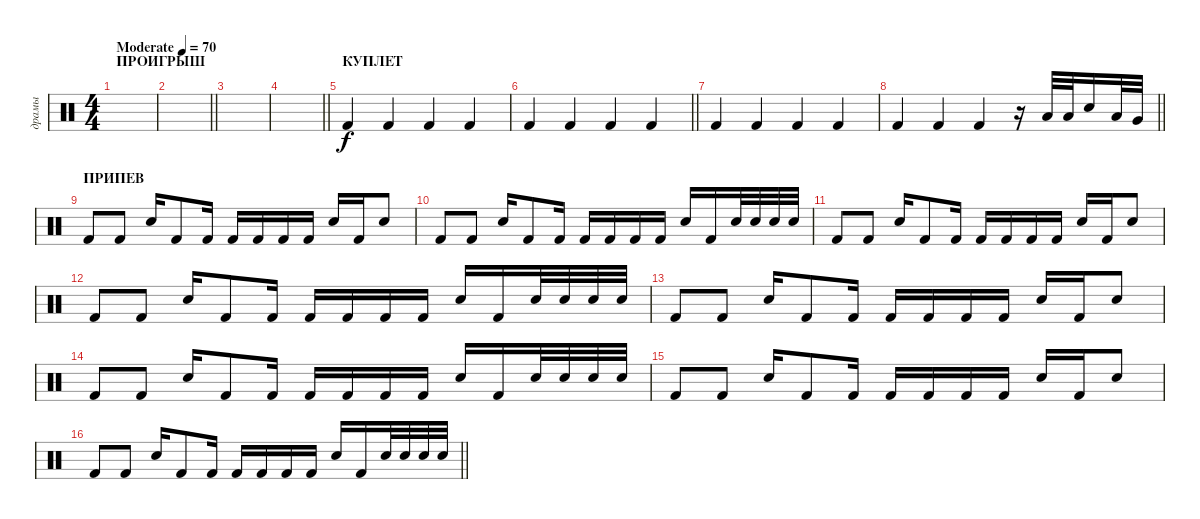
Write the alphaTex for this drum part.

\track ("драмы" "драмы") {instrument percussion}
\staff {score}
\articulation defaults
\ts (4 4)
\section ("" "ПРОИГРЫШ")
\tempo (70 "Moderate")
\clef neutral
\ks c
|
\barLineRight lightlight
|
\section ("" "")
|
\barLineRight lightlight
|
\section ("" "КУПЛЕТ")
"Kick (hit) 2".4 "Kick (hit) 2".4 "Kick (hit) 2".4 "Kick (hit) 2".4 |
\barLineRight lightlight "Kick (hit) 2".4 "Kick (hit) 2".4 "Kick (hit) 2".4 "Kick (hit) 2".4
|
"Kick (hit) 2".4 "Kick (hit) 2".4 "Kick (hit) 2".4 "Kick (hit) 2".4 |
\barLineRight lightlight "Kick (hit) 2".4 "Kick (hit) 2".4 "Kick (hit) 2".4
r.16 "Low Tom (hit)".32 "Low Tom (hit)".32 "Electric Snare (hit)".16 "Low Tom (hit)".32 "Very Low Tom (hit)".32 |
\section ("" "ПРИПЕВ")
"Kick (hit) 2".8 "Kick (hit) 2".8 "Electric Snare (hit)".16 "Kick (hit) 2".8 "Kick (hit) 2".16 "Kick (hit) 2".16 "Kick (hit) 2".16 "Kick (hit) 2".16 "Kick (hit) 2".16 "Electric Snare (hit)".16 "Kick (hit) 2".16 "Electric Snare (hit)".8 |
"Kick (hit) 2".8 "Kick (hit) 2".8 "Electric Snare (hit)".16 "Kick (hit) 2".8 "Kick (hit) 2".16 "Kick (hit) 2".16 "Kick (hit) 2".16 "Kick (hit) 2".16 "Kick (hit) 2".16 "Electric Snare (hit)".16 "Kick (hit) 2".16 "Electric Snare (hit)".32 "Electric Snare (hit)".32 "Electric Snare (hit)".32 "Electric Snare (hit)".32 |
"Kick (hit) 2".8 "Kick (hit) 2".8 "Electric Snare (hit)".16 "Kick (hit) 2".8 "Kick (hit) 2".16 "Kick (hit) 2".16 "Kick (hit) 2".16 "Kick (hit) 2".16 "Kick (hit) 2".16 "Electric Snare (hit)".16 "Kick (hit) 2".16 "Electric Snare (hit)".8 |
"Kick (hit) 2".8 "Kick (hit) 2".8 "Electric Snare (hit)".16 "Kick (hit) 2".8 "Kick (hit) 2".16 "Kick (hit) 2".16 "Kick (hit) 2".16 "Kick (hit) 2".16 "Kick (hit) 2".16 "Electric Snare (hit)".16 "Kick (hit) 2".16 "Electric Snare (hit)".32 "Electric Snare (hit)".32 "Electric Snare (hit)".32 "Electric Snare (hit)".32 |
"Kick (hit) 2".8 "Kick (hit) 2".8 "Electric Snare (hit)".16 "Kick (hit) 2".8 "Kick (hit) 2".16 "Kick (hit) 2".16 "Kick (hit) 2".16 "Kick (hit) 2".16 "Kick (hit) 2".16 "Electric Snare (hit)".16 "Kick (hit) 2".16 "Electric Snare (hit)".8 |
"Kick (hit) 2".8 "Kick (hit) 2".8 "Electric Snare (hit)".16 "Kick (hit) 2".8 "Kick (hit) 2".16 "Kick (hit) 2".16 "Kick (hit) 2".16 "Kick (hit) 2".16 "Kick (hit) 2".16 "Electric Snare (hit)".16 "Kick (hit) 2".16 "Electric Snare (hit)".32 "Electric Snare (hit)".32 "Electric Snare (hit)".32 "Electric Snare (hit)".32 |
"Kick (hit) 2".8 "Kick (hit) 2".8 "Electric Snare (hit)".16 "Kick (hit) 2".8 "Kick (hit) 2".16 "Kick (hit) 2".16 "Kick (hit) 2".16 "Kick (hit) 2".16 "Kick (hit) 2".16 "Electric Snare (hit)".16 "Kick (hit) 2".16 "Electric Snare (hit)".8 |
\barLineRight lightlight "Kick (hit) 2".8 "Kick (hit) 2".8 "Electric Snare (hit)".16 "Kick (hit) 2".8 "Kick (hit) 2".16 "Kick (hit) 2".16 "Kick (hit) 2".16 "Kick (hit) 2".16 "Kick (hit) 2".16 "Electric Snare (hit)".16 "Kick (hit) 2".16 "Electric Snare (hit)".32 "Electric Snare (hit)".32 "Electric Snare (hit)".32 "Electric Snare (hit)".32
